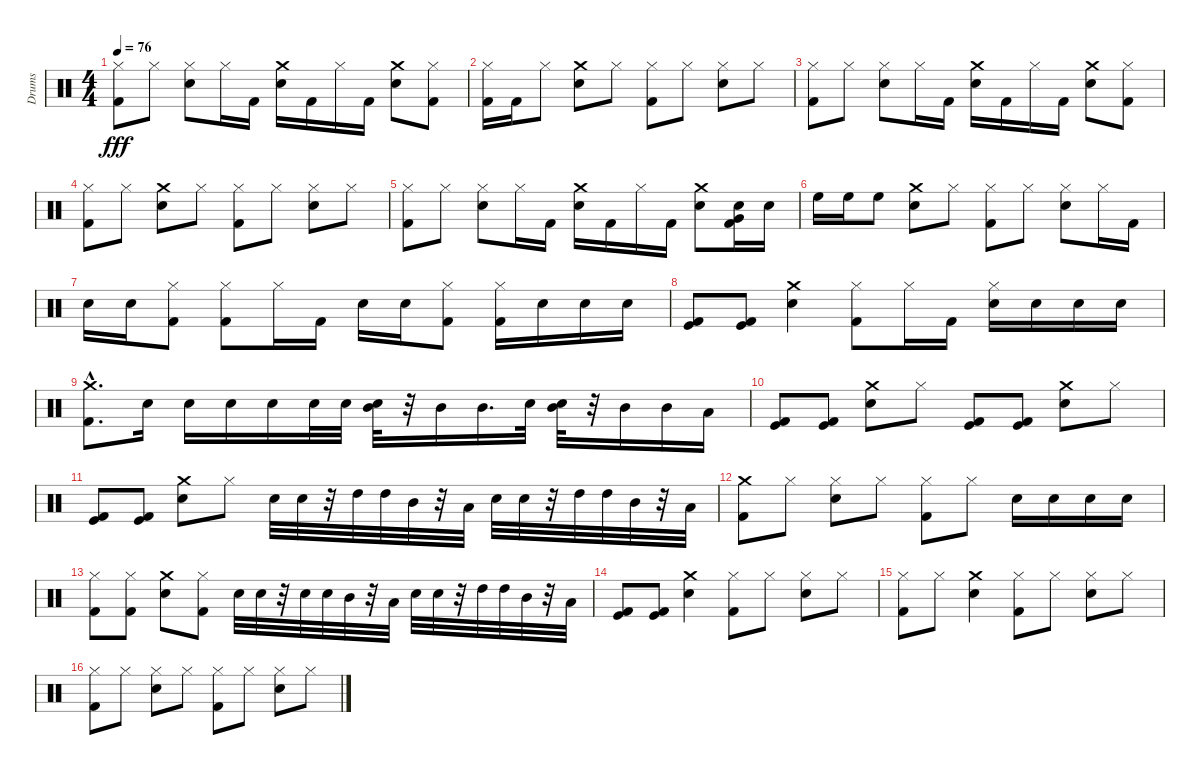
\track ("Drums" "Drums") {instrument percussion}
\staff {score}
\articulation defaults
\ts (4 4)
\tempo 76
\clef neutral
\ks c
("Hi-Hat (closed)" "Kick (hit) 2").8{dy fff} "Hi-Hat (closed)".8 ("Hi-Hat (closed)" "Snare (hit) 2").8 "Hi-Hat (closed)".16 "Kick (hit) 2".16 ("Snare (hit) 2" "Crash medium (hit)").16 "Kick (hit) 2".16 "Hi-Hat (closed)".16 "Kick (hit) 2".16 ("Snare (hit) 2" "Crash medium (hit)").8 ("Hi-Hat (closed)" "Kick (hit) 2").8 |
("Kick (hit) 2" "Hi-Hat (closed)").16 "Kick (hit) 2".16 "Hi-Hat (closed)".8 ("Snare (hit) 2" "Crash medium (hit)").8 "Hi-Hat (closed)".8 ("Hi-Hat (closed)" "Kick (hit) 2").8 "Hi-Hat (closed)".8 ("Hi-Hat (closed)" "Snare (hit) 2").8 "Hi-Hat (closed)".8 |
("Hi-Hat (closed)" "Kick (hit) 2").8 "Hi-Hat (closed)".8 ("Hi-Hat (closed)" "Snare (hit) 2").8 "Hi-Hat (closed)".16 "Kick (hit) 2".16 ("Snare (hit) 2" "Crash medium (hit)").16 "Kick (hit) 2".16 "Hi-Hat (closed)".16 "Kick (hit) 2".16 ("Snare (hit) 2" "Crash medium (hit)").8 ("Kick (hit) 2" "Hi-Hat (closed)").8 |
("Hi-Hat (closed)" "Kick (hit) 2").8 "Hi-Hat (closed)".8 ("Snare (hit) 2" "Crash medium (hit)").8 "Hi-Hat (closed)".8 ("Hi-Hat (closed)" "Kick (hit) 2").8 "Hi-Hat (closed)".8 ("Hi-Hat (closed)" "Snare (hit) 2").8 "Hi-Hat (closed)".8 |
("Hi-Hat (closed)" "Kick (hit) 2").8 "Hi-Hat (closed)".8 ("Hi-Hat (closed)" "Snare (hit) 2").8 "Hi-Hat (closed)".16 "Kick (hit) 2".16 ("Snare (hit) 2" "Crash medium (hit)").16 "Kick (hit) 2".16 "Hi-Hat (closed)".16 "Kick (hit) 2".16 ("Snare (hit) 2" "Crash medium (hit)").8 ("Kick (hit) 2" "Snare (hit) 2" "Very Low Tom (hit)").16 "Snare (hit) 2".16 |
"High Floor Tom (hit)".16 "High Floor Tom (hit)".16 "High Floor Tom (hit)".8 ("Snare (hit) 2" "Crash medium (hit)").8 "Hi-Hat (closed)".8 ("Hi-Hat (closed)" "Kick (hit) 2").8 "Hi-Hat (closed)".8 ("Hi-Hat (closed)" "Snare (hit) 2").8 "Hi-Hat (closed)".16 "Kick (hit) 2".16 |
"Snare (hit) 2".16 "Snare (hit) 2".16 ("Kick (hit) 2" "Hi-Hat (closed)").8 ("Kick (hit) 2" "Hi-Hat (closed)").8 "Hi-Hat (closed)".16 "Kick (hit) 2".16 "Snare (hit) 2".16 "Snare (hit) 2".16 ("Kick (hit) 2" "Hi-Hat (closed)").8 ("Kick (hit) 2" "Hi-Hat (closed)").16 "Snare (hit) 2".16 "Snare (hit) 2".16 "Snare (hit) 2".16 |
("Kick (hit) 2" "Kick (hit)").8 ("Kick (hit) 2" "Kick (hit)").8 ("Snare (hit) 2" "Crash medium (hit)").4 ("Hi-Hat (closed)" "Kick (hit) 2").8 "Hi-Hat (closed)".16 "Kick (hit) 2".16 ("Snare (hit) 2" "Hi-Hat (closed)").16 "Snare (hit) 2".16 "Snare (hit) 2".16 "Snare (hit) 2".16 |
("Kick (hit) 2"{hac} "Crash medium (hit)"{hac}).8{d} "Snare (hit) 2".16 "Snare (hit) 2".16 "Snare (hit) 2".16 "Snare (hit) 2".16 "Snare (hit) 2".32 "Snare (hit) 2".32 ("Snare (hit) 2" "Mid Tom (hit)").32 r.32 "Mid Tom (hit)".16 "Mid Tom (hit)".16{d} "Snare (hit) 2".32 ("Snare (hit) 2" "Mid Tom (hit)").32 r.32 "Mid Tom (hit)".16 "Mid Tom (hit)".16 "Low Tom (hit)".16 |
("Kick (hit) 2" "Kick (hit)").8 ("Kick (hit) 2" "Kick (hit)").8 ("Snare (hit) 2" "Crash medium (hit)").8 "Hi-Hat (closed)".8 ("Kick (hit) 2" "Kick (hit)").8 ("Kick (hit) 2" "Kick (hit)").8 ("Snare (hit) 2" "Crash medium (hit)").8 "Hi-Hat (closed)".8 |
("Kick (hit) 2" "Kick (hit)").8 ("Kick (hit) 2" "Kick (hit)").8 ("Snare (hit) 2" "Crash medium (hit)").8 "Hi-Hat (closed)".8 "Snare (hit) 2".32 "Snare (hit) 2".32 r.32 "High Tom (hit)".32 "High Tom (hit)".32 "Mid Tom (hit)".32 r.32 "Low Tom (hit)".32 "Snare (hit) 2".32 "Snare (hit) 2".32 r.32 "High Tom (hit)".32 "High Tom (hit)".32 "Mid Tom (hit)".32 r.32 "Low Tom (hit)".32 |
("Kick (hit) 2" "Crash medium (hit)").8 "Hi-Hat (closed)".8 ("Hi-Hat (closed)" "Snare (hit) 2").8 "Hi-Hat (closed)".8 ("Hi-Hat (closed)" "Kick (hit) 2").8 "Hi-Hat (closed)".8 "Snare (hit) 2".16 "Snare (hit) 2".16 "Snare (hit) 2".16 "Snare (hit) 2".16 |
("Hi-Hat (closed)" "Kick (hit) 2").8 ("Hi-Hat (closed)" "Kick (hit) 2").8 ("Crash medium (hit)" "Snare (hit) 2").8 ("Kick (hit) 2" "Hi-Hat (closed)").8 "Snare (hit) 2".32 "Snare (hit) 2".32 r.32 "Snare (hit) 2".32 "Snare (hit) 2".32 "Mid Tom (hit)".32 r.32 "Low Tom (hit)".32 "Snare (hit) 2".32 "Snare (hit) 2".32 r.32 "High Tom (hit)".32 "High Tom (hit)".32 "Mid Tom (hit)".32 r.32 "Low Tom (hit)".32 |
("Kick (hit) 2" "Kick (hit)").8 ("Kick (hit) 2" "Kick (hit)").8 ("Snare (hit) 2" "Crash medium (hit)").4 ("Hi-Hat (closed)" "Kick (hit) 2").8 "Hi-Hat (closed)".8 ("Hi-Hat (closed)" "Snare (hit) 2").8 "Hi-Hat (closed)".8 |
("Hi-Hat (closed)" "Kick (hit) 2").8 "Hi-Hat (closed)".8 ("Snare (hit) 2" "Crash medium (hit)").4 ("Hi-Hat (closed)" "Kick (hit) 2").8 "Hi-Hat (closed)".8 ("Hi-Hat (closed)" "Snare (hit) 2").8 "Hi-Hat (closed)".8 |
("Hi-Hat (closed)" "Kick (hit) 2").8 "Hi-Hat (closed)".8 ("Hi-Hat (closed)" "Snare (hit) 2").8 "Hi-Hat (closed)".8 ("Hi-Hat (closed)" "Kick (hit) 2").8 "Hi-Hat (closed)".8 ("Hi-Hat (closed)" "Snare (hit) 2").8 "Hi-Hat (closed)".8
